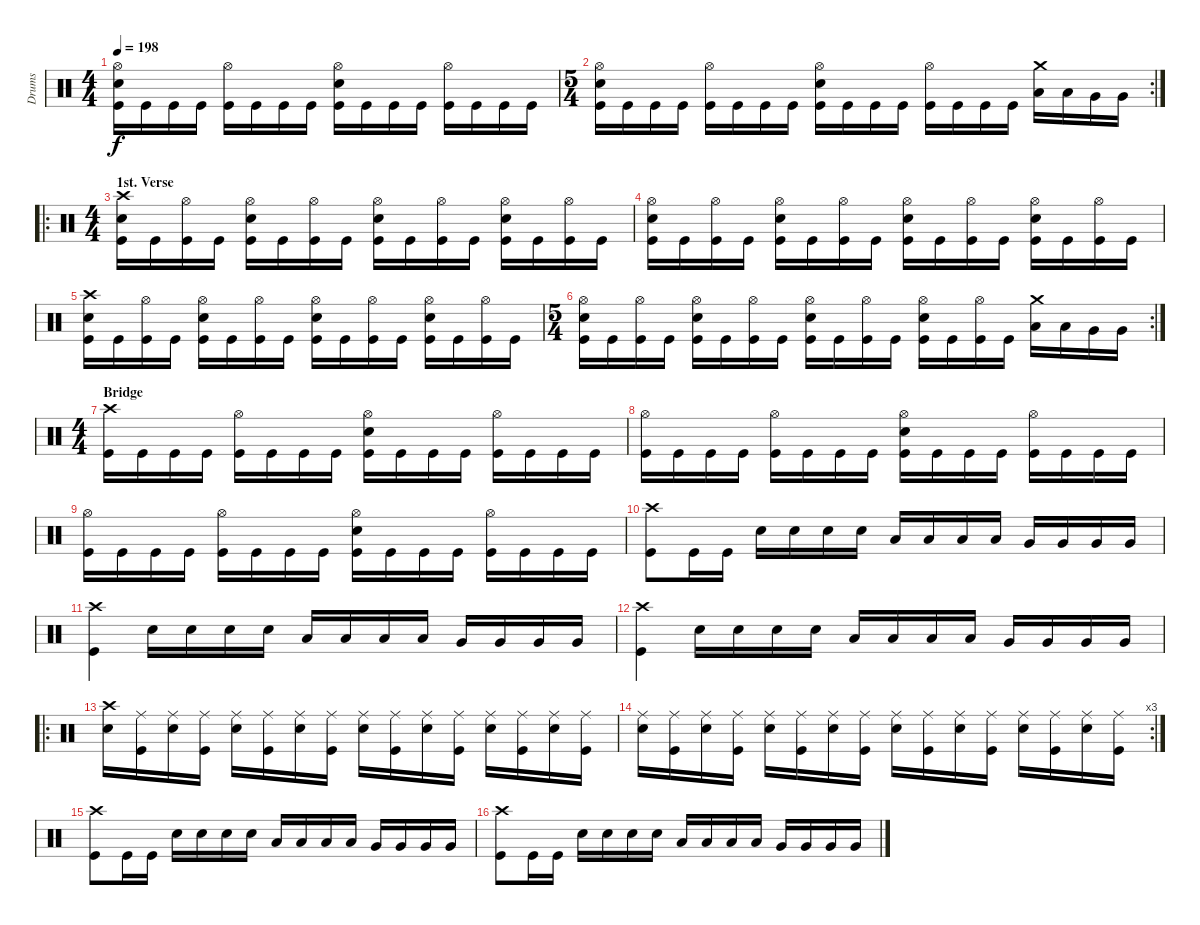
\track ("Drums" "Drums") {instrument percussion}
\staff {score}
\articulation defaults
\ts (4 4)
\tempo 198
\clef neutral
\ks c
("Hi-Hat (open)" "Snare (hit) 2" "Kick (hit)").16{dy f} "Kick (hit)".16 "Kick (hit)".16 "Kick (hit)".16 ("Hi-Hat (open)" "Kick (hit)").16 "Kick (hit)".16 "Kick (hit)".16 "Kick (hit)".16 ("Hi-Hat (open)" "Snare (hit) 2" "Kick (hit)").16 "Kick (hit)".16 "Kick (hit)".16 "Kick (hit)".16 ("Hi-Hat (open)" "Kick (hit)").16 "Kick (hit)".16 "Kick (hit)".16 "Kick (hit)".16 |
\rc 2
\ts (5 4)
("Hi-Hat (open)" "Snare (hit) 2" "Kick (hit)").16 "Kick (hit)".16 "Kick (hit)".16 "Kick (hit)".16 ("Hi-Hat (open)" "Kick (hit)").16 "Kick (hit)".16 "Kick (hit)".16 "Kick (hit)".16 ("Hi-Hat (open)" "Snare (hit) 2" "Kick (hit)").16 "Kick (hit)".16 "Kick (hit)".16 "Kick (hit)".16 ("Hi-Hat (open)" "Kick (hit)").16 "Kick (hit)".16 "Kick (hit)".16 "Kick (hit)".16 ("Crash medium (hit)" "Low Tom (hit)").16 "Low Tom (hit)".16 "Very Low Tom (hit)".16 "Very Low Tom (hit)".16 |
\ro
\ts (4 4)
\section ("" "1st. Verse")
("Crash high (hit)" "Snare (hit) 2" "Kick (hit)").16 "Kick (hit)".16 ("Hi-Hat (open)" "Kick (hit)").16 "Kick (hit)".16 ("Hi-Hat (open)" "Snare (hit) 2" "Kick (hit)").16 "Kick (hit)".16 ("Hi-Hat (open)" "Kick (hit)").16 "Kick (hit)".16 ("Hi-Hat (open)" "Snare (hit) 2" "Kick (hit)").16 "Kick (hit)".16 ("Hi-Hat (open)" "Kick (hit)").16 "Kick (hit)".16 ("Hi-Hat (open)" "Snare (hit) 2" "Kick (hit)").16 "Kick (hit)".16 ("Hi-Hat (open)" "Kick (hit)").16 "Kick (hit)".16 |
("Hi-Hat (open)" "Snare (hit) 2" "Kick (hit)").16 "Kick (hit)".16 ("Hi-Hat (open)" "Kick (hit)").16 "Kick (hit)".16 ("Hi-Hat (open)" "Snare (hit) 2" "Kick (hit)").16 "Kick (hit)".16 ("Hi-Hat (open)" "Kick (hit)").16 "Kick (hit)".16 ("Hi-Hat (open)" "Snare (hit) 2" "Kick (hit)").16 "Kick (hit)".16 ("Hi-Hat (open)" "Kick (hit)").16 "Kick (hit)".16 ("Hi-Hat (open)" "Snare (hit) 2" "Kick (hit)").16 "Kick (hit)".16 ("Hi-Hat (open)" "Kick (hit)").16 "Kick (hit)".16 |
("Crash high (hit)" "Snare (hit) 2" "Kick (hit)").16 "Kick (hit)".16 ("Hi-Hat (open)" "Kick (hit)").16 "Kick (hit)".16 ("Hi-Hat (open)" "Snare (hit) 2" "Kick (hit)").16 "Kick (hit)".16 ("Hi-Hat (open)" "Kick (hit)").16 "Kick (hit)".16 ("Hi-Hat (open)" "Snare (hit) 2" "Kick (hit)").16 "Kick (hit)".16 ("Hi-Hat (open)" "Kick (hit)").16 "Kick (hit)".16 ("Hi-Hat (open)" "Snare (hit) 2" "Kick (hit)").16 "Kick (hit)".16 ("Hi-Hat (open)" "Kick (hit)").16 "Kick (hit)".16 |
\rc 2
\ts (5 4)
("Hi-Hat (open)" "Snare (hit) 2" "Kick (hit)").16 "Kick (hit)".16 ("Hi-Hat (open)" "Kick (hit)").16 "Kick (hit)".16 ("Hi-Hat (open)" "Snare (hit) 2" "Kick (hit)").16 "Kick (hit)".16 ("Hi-Hat (open)" "Kick (hit)").16 "Kick (hit)".16 ("Hi-Hat (open)" "Snare (hit) 2" "Kick (hit)").16 "Kick (hit)".16 ("Hi-Hat (open)" "Kick (hit)").16 "Kick (hit)".16 ("Hi-Hat (open)" "Snare (hit) 2" "Kick (hit)").16 "Kick (hit)".16 ("Hi-Hat (open)" "Kick (hit)").16 "Kick (hit)".16 ("Crash medium (hit)" "Low Tom (hit)").16 "Low Tom (hit)".16 "Very Low Tom (hit)".16 "Very Low Tom (hit)".16 |
\ts (4 4)
\section ("" "Bridge")
("Crash high (hit)" "Kick (hit)").16 "Kick (hit)".16 "Kick (hit)".16 "Kick (hit)".16 ("Hi-Hat (open)" "Kick (hit)").16 "Kick (hit)".16 "Kick (hit)".16 "Kick (hit)".16 ("Hi-Hat (open)" "Snare (hit) 2" "Kick (hit)").16 "Kick (hit)".16 "Kick (hit)".16 "Kick (hit)".16 ("Hi-Hat (open)" "Kick (hit)").16 "Kick (hit)".16 "Kick (hit)".16 "Kick (hit)".16 |
("Hi-Hat (open)" "Kick (hit)").16 "Kick (hit)".16 "Kick (hit)".16 "Kick (hit)".16 ("Hi-Hat (open)" "Kick (hit)").16 "Kick (hit)".16 "Kick (hit)".16 "Kick (hit)".16 ("Hi-Hat (open)" "Snare (hit) 2" "Kick (hit)").16 "Kick (hit)".16 "Kick (hit)".16 "Kick (hit)".16 ("Hi-Hat (open)" "Kick (hit)").16 "Kick (hit)".16 "Kick (hit)".16 "Kick (hit)".16 |
("Hi-Hat (open)" "Kick (hit)").16 "Kick (hit)".16 "Kick (hit)".16 "Kick (hit)".16 ("Hi-Hat (open)" "Kick (hit)").16 "Kick (hit)".16 "Kick (hit)".16 "Kick (hit)".16 ("Hi-Hat (open)" "Snare (hit) 2" "Kick (hit)").16 "Kick (hit)".16 "Kick (hit)".16 "Kick (hit)".16 ("Hi-Hat (open)" "Kick (hit)").16 "Kick (hit)".16 "Kick (hit)".16 "Kick (hit)".16 |
("Crash high (hit)" "Kick (hit)").8 "Kick (hit)".16 "Kick (hit)".16 "Snare (hit) 2".16 "Snare (hit) 2".16 "Snare (hit) 2".16 "Snare (hit) 2".16 "Low Tom (hit)".16 "Low Tom (hit)".16 "Low Tom (hit)".16 "Low Tom (hit)".16 "Very Low Tom (hit)".16 "Very Low Tom (hit)".16 "Very Low Tom (hit)".16 "Very Low Tom (hit)".16 |
("Crash high (hit)" "Kick (hit)").4 "Snare (hit) 2".16 "Snare (hit) 2".16 "Snare (hit) 2".16 "Snare (hit) 2".16 "Low Tom (hit)".16 "Low Tom (hit)".16 "Low Tom (hit)".16 "Low Tom (hit)".16 "Very Low Tom (hit)".16 "Very Low Tom (hit)".16 "Very Low Tom (hit)".16 "Very Low Tom (hit)".16 |
("Crash high (hit)" "Kick (hit)").4 "Snare (hit) 2".16 "Snare (hit) 2".16 "Snare (hit) 2".16 "Snare (hit) 2".16 "Low Tom (hit)".16 "Low Tom (hit)".16 "Low Tom (hit)".16 "Low Tom (hit)".16 "Very Low Tom (hit)".16 "Very Low Tom (hit)".16 "Very Low Tom (hit)".16 "Very Low Tom (hit)".16 |
\ro
("Crash high (hit)" "Snare (hit) 2").16 ("Ride (middle)" "Kick (hit)").16 ("Ride (middle)" "Snare (hit) 2").16 ("Ride (middle)" "Kick (hit)").16 ("Ride (middle)" "Snare (hit) 2").16 ("Ride (middle)" "Kick (hit)").16 ("Ride (middle)" "Snare (hit) 2").16 ("Ride (middle)" "Kick (hit)").16 ("Ride (middle)" "Snare (hit) 2").16 ("Ride (middle)" "Kick (hit)").16 ("Ride (middle)" "Snare (hit) 2").16 ("Ride (middle)" "Kick (hit)").16 ("Ride (middle)" "Snare (hit) 2").16 ("Ride (middle)" "Kick (hit)").16 ("Ride (middle)" "Snare (hit) 2").16 ("Ride (middle)" "Kick (hit)").16 |
\rc 3
("Ride (middle)" "Snare (hit) 2").16 ("Ride (middle)" "Kick (hit)").16 ("Ride (middle)" "Snare (hit) 2").16 ("Ride (middle)" "Kick (hit)").16 ("Ride (middle)" "Snare (hit) 2").16 ("Ride (middle)" "Kick (hit)").16 ("Ride (middle)" "Snare (hit) 2").16 ("Ride (middle)" "Kick (hit)").16 ("Ride (middle)" "Snare (hit) 2").16 ("Ride (middle)" "Kick (hit)").16 ("Ride (middle)" "Snare (hit) 2").16 ("Ride (middle)" "Kick (hit)").16 ("Ride (middle)" "Snare (hit) 2").16 ("Ride (middle)" "Kick (hit)").16 ("Ride (middle)" "Snare (hit) 2").16 ("Ride (middle)" "Kick (hit)").16 |
("Crash high (hit)" "Kick (hit)").8 "Kick (hit)".16 "Kick (hit)".16 "Snare (hit) 2".16 "Snare (hit) 2".16 "Snare (hit) 2".16 "Snare (hit) 2".16 "Low Tom (hit)".16 "Low Tom (hit)".16 "Low Tom (hit)".16 "Low Tom (hit)".16 "Very Low Tom (hit)".16 "Very Low Tom (hit)".16 "Very Low Tom (hit)".16 "Very Low Tom (hit)".16 |
("Crash high (hit)" "Kick (hit)").8 "Kick (hit)".16 "Kick (hit)".16 "Snare (hit) 2".16 "Snare (hit) 2".16 "Snare (hit) 2".16 "Snare (hit) 2".16 "Low Tom (hit)".16 "Low Tom (hit)".16 "Low Tom (hit)".16 "Low Tom (hit)".16 "Very Low Tom (hit)".16 "Very Low Tom (hit)".16 "Very Low Tom (hit)".16 "Very Low Tom (hit)".16
